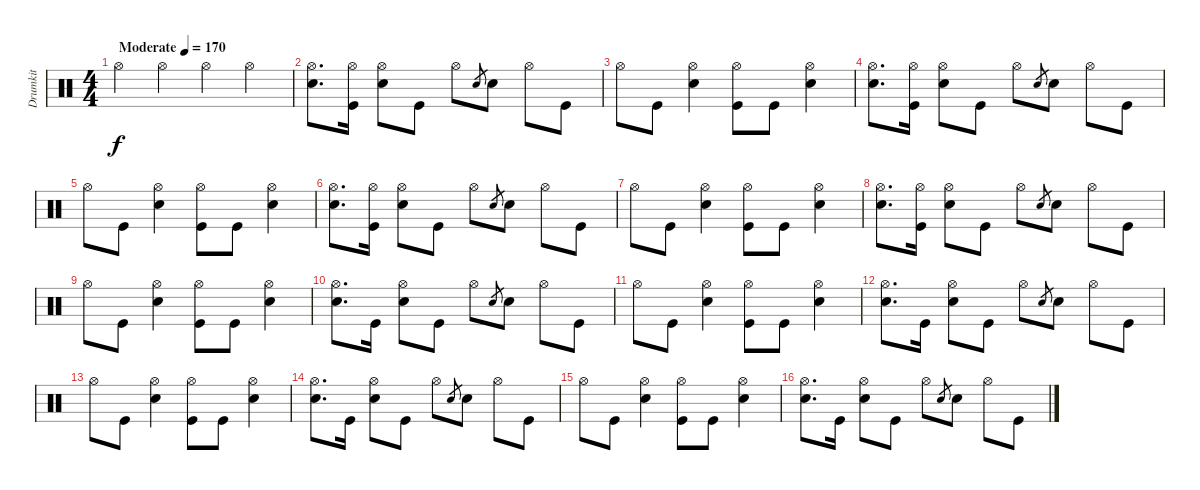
\track ("Drumkit" "Drumkit") {instrument percussion}
\staff {score}
\articulation defaults
\ts (4 4)
\tempo (170 "Moderate")
\clef neutral
\ks c "Hi-Hat (open)".4{dy f} "Hi-Hat (open)".4 "Hi-Hat (open)".4 "Hi-Hat (open)".4
|
("Snare (hit) 2" "Hi-Hat (open)").8{d} ("Hi-Hat (open)" "Kick (hit)").16 ("Snare (hit) 2" "Hi-Hat (open)").8 "Kick (hit)".8 "Hi-Hat (open)".8 "Snare (hit)".8{gr} "Snare (hit) 2".8 "Hi-Hat (open)".8 "Kick (hit)".8 |
"Hi-Hat (open)".8 "Kick (hit)".8 ("Snare (hit) 2" "Hi-Hat (open)").4 ("Kick (hit)" "Hi-Hat (open)").8 "Kick (hit)".8 ("Snare (hit) 2" "Hi-Hat (open)").4 |
("Snare (hit) 2" "Hi-Hat (open)").8{d} ("Hi-Hat (open)" "Kick (hit)").16 ("Snare (hit) 2" "Hi-Hat (open)").8 "Kick (hit)".8 "Hi-Hat (open)".8 "Snare (hit)".8{gr} "Snare (hit) 2".8 "Hi-Hat (open)".8 "Kick (hit)".8 |
"Hi-Hat (open)".8 "Kick (hit)".8 ("Snare (hit) 2" "Hi-Hat (open)").4 ("Kick (hit)" "Hi-Hat (open)").8 "Kick (hit)".8 ("Snare (hit) 2" "Hi-Hat (open)").4 |
("Snare (hit) 2" "Hi-Hat (open)").8{d} ("Hi-Hat (open)" "Kick (hit)").16 ("Snare (hit) 2" "Hi-Hat (open)").8 "Kick (hit)".8 "Hi-Hat (open)".8 "Snare (hit)".8{gr} "Snare (hit) 2".8 "Hi-Hat (open)".8 "Kick (hit)".8 |
"Hi-Hat (open)".8 "Kick (hit)".8 ("Snare (hit) 2" "Hi-Hat (open)").4 ("Kick (hit)" "Hi-Hat (open)").8 "Kick (hit)".8 ("Snare (hit) 2" "Hi-Hat (open)").4 |
("Snare (hit) 2" "Hi-Hat (open)").8{d} ("Hi-Hat (open)" "Kick (hit)").16 ("Snare (hit) 2" "Hi-Hat (open)").8 "Kick (hit)".8 "Hi-Hat (open)".8 "Snare (hit)".8{gr} "Snare (hit) 2".8 "Hi-Hat (open)".8 "Kick (hit)".8 |
"Hi-Hat (open)".8 "Kick (hit)".8 ("Snare (hit) 2" "Hi-Hat (open)").4 ("Kick (hit)" "Hi-Hat (open)").8 "Kick (hit)".8 ("Snare (hit) 2" "Hi-Hat (open)").4 |
("Snare (hit) 2" "Hi-Hat (open)").8{d} "Kick (hit)".16 ("Snare (hit) 2" "Hi-Hat (open)").8 "Kick (hit)".8 "Hi-Hat (open)".8 "Snare (hit)".8{gr} "Snare (hit) 2".8 "Hi-Hat (open)".8 "Kick (hit)".8 |
"Hi-Hat (open)".8 "Kick (hit)".8 ("Snare (hit) 2" "Hi-Hat (open)").4 ("Kick (hit)" "Hi-Hat (open)").8 "Kick (hit)".8 ("Snare (hit) 2" "Hi-Hat (open)").4 |
("Snare (hit) 2" "Hi-Hat (open)").8{d} "Kick (hit)".16 ("Snare (hit) 2" "Hi-Hat (open)").8 "Kick (hit)".8 "Hi-Hat (open)".8 "Snare (hit)".8{gr} "Snare (hit) 2".8 "Hi-Hat (open)".8 "Kick (hit)".8 |
"Hi-Hat (open)".8 "Kick (hit)".8 ("Snare (hit) 2" "Hi-Hat (open)").4 ("Kick (hit)" "Hi-Hat (open)").8 "Kick (hit)".8 ("Snare (hit) 2" "Hi-Hat (open)").4 |
("Snare (hit) 2" "Hi-Hat (open)").8{d} "Kick (hit)".16 ("Snare (hit) 2" "Hi-Hat (open)").8 "Kick (hit)".8 "Hi-Hat (open)".8 "Snare (hit)".8{gr} "Snare (hit) 2".8 "Hi-Hat (open)".8 "Kick (hit)".8 |
"Hi-Hat (open)".8 "Kick (hit)".8 ("Snare (hit) 2" "Hi-Hat (open)").4 ("Kick (hit)" "Hi-Hat (open)").8 "Kick (hit)".8 ("Snare (hit) 2" "Hi-Hat (open)").4 |
("Snare (hit) 2" "Hi-Hat (open)").8{d} "Kick (hit)".16 ("Snare (hit) 2" "Hi-Hat (open)").8 "Kick (hit)".8 "Hi-Hat (open)".8 "Snare (hit)".8{gr} "Snare (hit) 2".8 "Hi-Hat (open)".8 "Kick (hit)".8
